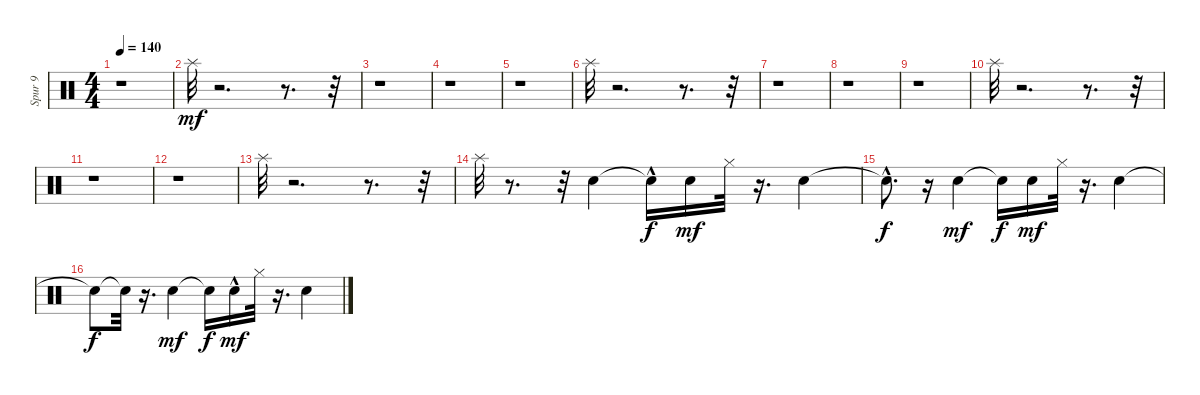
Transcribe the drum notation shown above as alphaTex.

\track ("Spur 9" "Spur 9") {instrument percussion}
\staff {score}
\articulation defaults
\ts (4 4)
\tempo 140
\clef neutral
\ks c
r.1{dy mf} |
"Splash (hit)".32 r.2{d} r.8{d} r.32 |
r.1 |
r.1 |
r.1 |
"Splash (hit)".32 r.2{d} r.8{d} r.32 |
r.1 |
r.1 |
r.1 |
"Splash (hit)".32 r.2{d} r.8{d} r.32 |
r.1 |
r.1 |
"Splash (hit)".32 r.2{d} r.8{d} r.32 |
"Splash (hit)".32 r.8{d} r.32 "Electric Snare (hit)".4 "Snare (hit)"{hac t}.16{dy f} "Snare (hit)".16{dy mf} "Hi-Hat (closed)".32 r.16{d} "Electric Snare (hit)".4 |
"Snare (hit)"{hac t}.8{d dy f} r.16 "Electric Snare (hit)".4{dy mf} "Snare (hit)"{t}.16{dy f} "Snare (hit)".16{dy mf} "Hi-Hat (closed)".32 r.16{d} "Electric Snare (hit)".4 |
"Snare (hit)"{t}.8{dy f} "Snare (hit)"{t}.32 r.16{d} "Electric Snare (hit)".4{dy mf} "Snare (hit)"{t}.16{dy f} "Snare (hit)"{hac}.16{dy mf} "Hi-Hat (closed)".32 r.16{d} "Electric Snare (hit)".4
